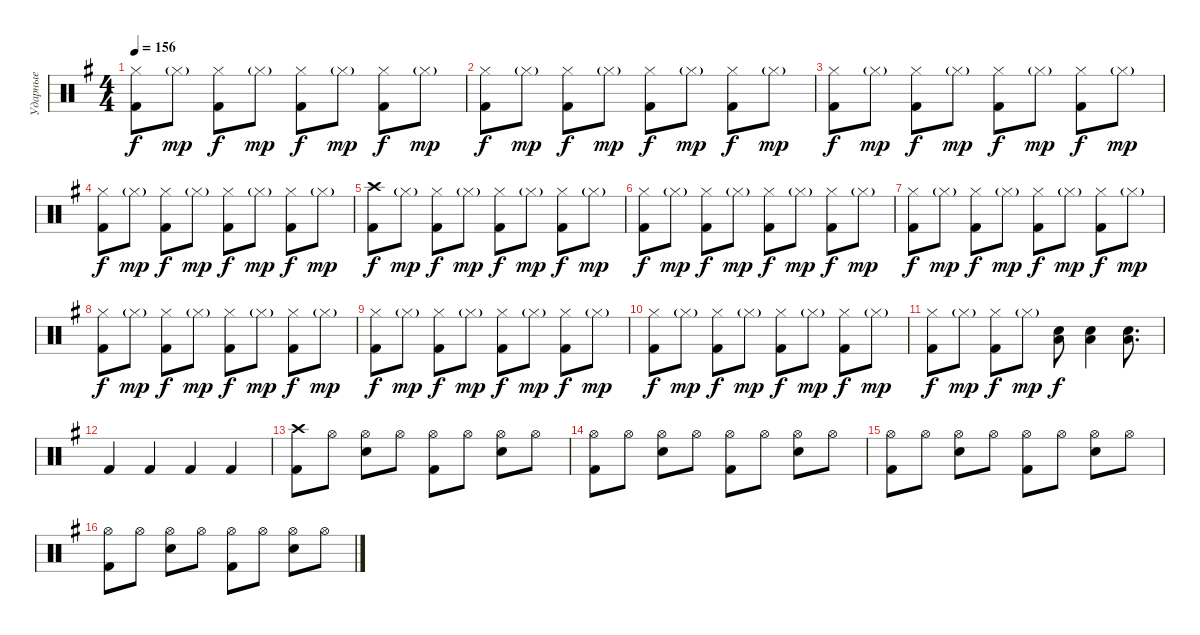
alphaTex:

\track ("Ударные" "Ударные") {instrument percussion}
\staff {score}
\articulation defaults
\ts (4 4)
\tempo 156
\clef neutral
\ks g
("Kick (hit) 2" "Hi-Hat (closed)").8{dy f} "Hi-Hat (closed)"{g}.8{dy mp} ("Kick (hit) 2" "Hi-Hat (closed)").8{dy f} "Hi-Hat (closed)"{g}.8{dy mp} ("Kick (hit) 2" "Hi-Hat (closed)").8{dy f} "Hi-Hat (closed)"{g}.8{dy mp} ("Kick (hit) 2" "Hi-Hat (closed)").8{dy f} "Hi-Hat (closed)"{g}.8{dy mp} |
("Kick (hit) 2" "Hi-Hat (closed)").8{dy f} "Hi-Hat (closed)"{g}.8{dy mp} ("Kick (hit) 2" "Hi-Hat (closed)").8{dy f} "Hi-Hat (closed)"{g}.8{dy mp} ("Kick (hit) 2" "Hi-Hat (closed)").8{dy f} "Hi-Hat (closed)"{g}.8{dy mp} ("Kick (hit) 2" "Hi-Hat (closed)").8{dy f} "Hi-Hat (closed)"{g}.8{dy mp} |
("Kick (hit) 2" "Hi-Hat (closed)").8{dy f} "Hi-Hat (closed)"{g}.8{dy mp} ("Kick (hit) 2" "Hi-Hat (closed)").8{dy f} "Hi-Hat (closed)"{g}.8{dy mp} ("Kick (hit) 2" "Hi-Hat (closed)").8{dy f} "Hi-Hat (closed)"{g}.8{dy mp} ("Kick (hit) 2" "Hi-Hat (closed)").8{dy f} "Hi-Hat (closed)"{g}.8{dy mp} |
("Kick (hit) 2" "Hi-Hat (closed)").8{dy f} "Hi-Hat (closed)"{g}.8{dy mp} ("Kick (hit) 2" "Hi-Hat (closed)").8{dy f} "Hi-Hat (closed)"{g}.8{dy mp} ("Kick (hit) 2" "Hi-Hat (closed)").8{dy f} "Hi-Hat (closed)"{g}.8{dy mp} ("Kick (hit) 2" "Hi-Hat (closed)").8{dy f} "Hi-Hat (closed)"{g}.8{dy mp} |
("Kick (hit) 2" "Crash high (hit)").8{dy f} "Hi-Hat (closed)"{g}.8{dy mp} ("Kick (hit) 2" "Hi-Hat (closed)").8{dy f} "Hi-Hat (closed)"{g}.8{dy mp} ("Kick (hit) 2" "Hi-Hat (closed)").8{dy f} "Hi-Hat (closed)"{g}.8{dy mp} ("Kick (hit) 2" "Hi-Hat (closed)").8{dy f} "Hi-Hat (closed)"{g}.8{dy mp} |
("Kick (hit) 2" "Hi-Hat (closed)").8{dy f} "Hi-Hat (closed)"{g}.8{dy mp} ("Kick (hit) 2" "Hi-Hat (closed)").8{dy f} "Hi-Hat (closed)"{g}.8{dy mp} ("Kick (hit) 2" "Hi-Hat (closed)").8{dy f} "Hi-Hat (closed)"{g}.8{dy mp} ("Kick (hit) 2" "Hi-Hat (closed)").8{dy f} "Hi-Hat (closed)"{g}.8{dy mp} |
("Kick (hit) 2" "Hi-Hat (closed)").8{dy f} "Hi-Hat (closed)"{g}.8{dy mp} ("Kick (hit) 2" "Hi-Hat (closed)").8{dy f} "Hi-Hat (closed)"{g}.8{dy mp} ("Kick (hit) 2" "Hi-Hat (closed)").8{dy f} "Hi-Hat (closed)"{g}.8{dy mp} ("Kick (hit) 2" "Hi-Hat (closed)").8{dy f} "Hi-Hat (closed)"{g}.8{dy mp} |
("Kick (hit) 2" "Hi-Hat (closed)").8{dy f} "Hi-Hat (closed)"{g}.8{dy mp} ("Kick (hit) 2" "Hi-Hat (closed)").8{dy f} "Hi-Hat (closed)"{g}.8{dy mp} ("Kick (hit) 2" "Hi-Hat (closed)").8{dy f} "Hi-Hat (closed)"{g}.8{dy mp} ("Kick (hit) 2" "Hi-Hat (closed)").8{dy f} "Hi-Hat (closed)"{g}.8{dy mp} |
("Kick (hit) 2" "Hi-Hat (closed)").8{dy f} "Hi-Hat (closed)"{g}.8{dy mp} ("Kick (hit) 2" "Hi-Hat (closed)").8{dy f} "Hi-Hat (closed)"{g}.8{dy mp} ("Kick (hit) 2" "Hi-Hat (closed)").8{dy f} "Hi-Hat (closed)"{g}.8{dy mp} ("Kick (hit) 2" "Hi-Hat (closed)").8{dy f} "Hi-Hat (closed)"{g}.8{dy mp} |
("Kick (hit) 2" "Hi-Hat (closed)").8{dy f} "Hi-Hat (closed)"{g}.8{dy mp} ("Kick (hit) 2" "Hi-Hat (closed)").8{dy f} "Hi-Hat (closed)"{g}.8{dy mp} ("Kick (hit) 2" "Hi-Hat (closed)").8{dy f} "Hi-Hat (closed)"{g}.8{dy mp} ("Kick (hit) 2" "Hi-Hat (closed)").8{dy f} "Hi-Hat (closed)"{g}.8{dy mp} |
("Kick (hit) 2" "Hi-Hat (closed)").8{dy f} "Hi-Hat (closed)"{g}.8{dy mp} ("Kick (hit) 2" "Hi-Hat (closed)").8{dy f} "Hi-Hat (closed)"{g}.8{dy mp} ("Electric Snare (hit)" "Low Tom (hit)").8{dy f} ("Electric Snare (hit)" "Low Tom (hit)").4 ("Electric Snare (hit)" "Low Tom (hit)").8{d} |
"Kick (hit) 2".4 "Kick (hit) 2".4 "Kick (hit) 2".4 "Kick (hit) 2".4 |
("Crash high (hit)" "Kick (hit) 2").8 "Hi-Hat (open)".8 ("Hi-Hat (open)" "Electric Snare (hit)").8 "Hi-Hat (open)".8 ("Hi-Hat (open)" "Kick (hit) 2").8 "Hi-Hat (open)".8 ("Hi-Hat (open)" "Electric Snare (hit)").8 "Hi-Hat (open)".8 |
("Hi-Hat (open)" "Kick (hit) 2").8 "Hi-Hat (open)".8 ("Hi-Hat (open)" "Electric Snare (hit)").8 "Hi-Hat (open)".8 ("Hi-Hat (open)" "Kick (hit) 2").8 "Hi-Hat (open)".8 ("Hi-Hat (open)" "Electric Snare (hit)").8 "Hi-Hat (open)".8 |
("Hi-Hat (open)" "Kick (hit) 2").8 "Hi-Hat (open)".8 ("Hi-Hat (open)" "Electric Snare (hit)").8 "Hi-Hat (open)".8 ("Hi-Hat (open)" "Kick (hit) 2").8 "Hi-Hat (open)".8 ("Hi-Hat (open)" "Electric Snare (hit)").8 "Hi-Hat (open)".8 |
("Hi-Hat (open)" "Kick (hit) 2").8 "Hi-Hat (open)".8 ("Hi-Hat (open)" "Electric Snare (hit)").8 "Hi-Hat (open)".8 ("Hi-Hat (open)" "Kick (hit) 2").8 "Hi-Hat (open)".8 ("Hi-Hat (open)" "Electric Snare (hit)").8 "Hi-Hat (open)".8
